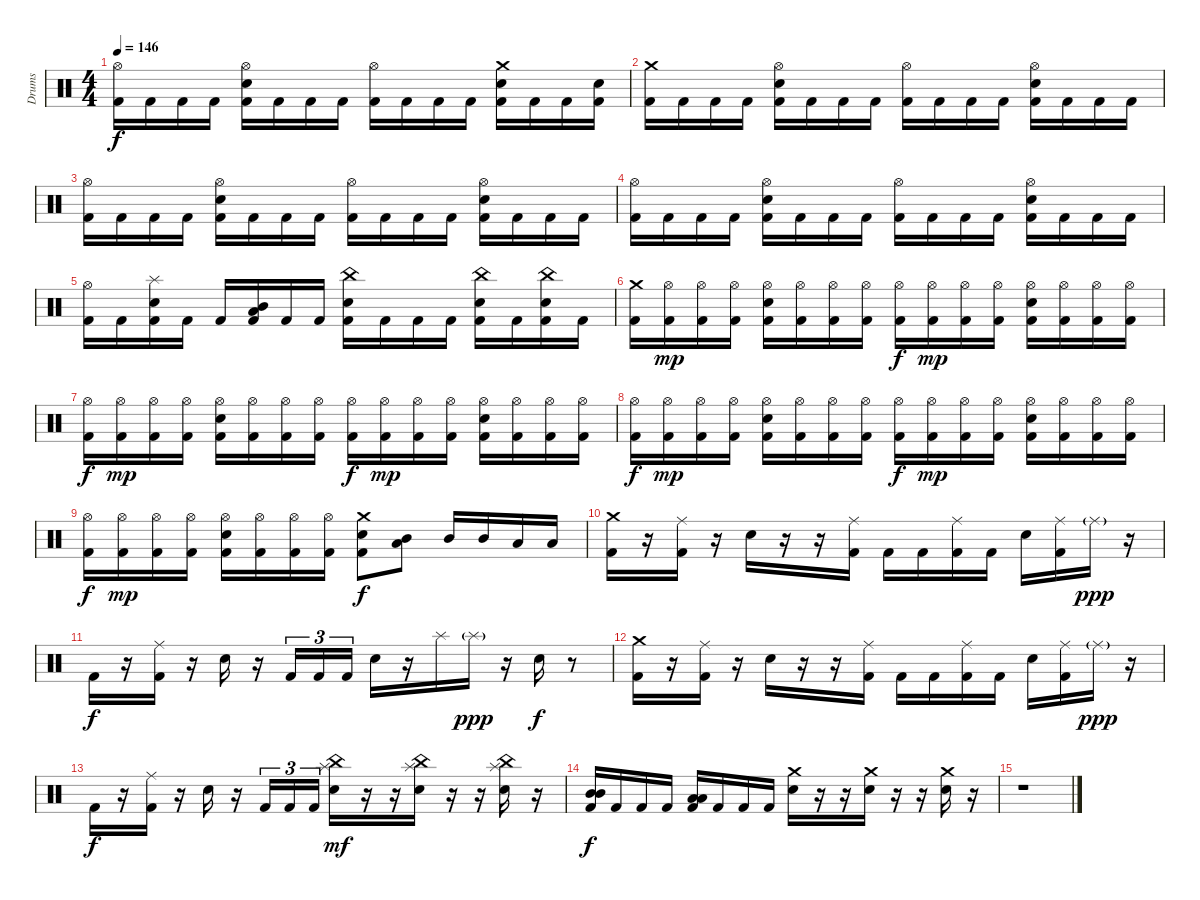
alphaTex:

\track ("Drums" "Drums") {instrument percussion}
\staff {score}
\articulation defaults
\ts (4 4)
\tempo 146
\clef neutral
\ks c
("Hi-Hat (open)" "Kick (hit) 2").16{dy f} "Kick (hit) 2".16 "Kick (hit) 2".16 "Kick (hit) 2".16 ("Hi-Hat (open)" "Electric Snare (hit)" "Kick (hit) 2").16 "Kick (hit) 2".16 "Kick (hit) 2".16 "Kick (hit) 2".16 ("Hi-Hat (open)" "Kick (hit) 2").16 "Kick (hit) 2".16 "Kick (hit) 2".16 "Kick (hit) 2".16 ("Crash medium (hit)" "Electric Snare (hit)" "Kick (hit) 2").16 "Kick (hit) 2".16 "Kick (hit) 2".16 ("Electric Snare (hit)" "Kick (hit) 2").16 |
("Crash medium (hit)" "Kick (hit) 2").16 "Kick (hit) 2".16 "Kick (hit) 2".16 "Kick (hit) 2".16 ("Hi-Hat (open)" "Electric Snare (hit)" "Kick (hit) 2").16 "Kick (hit) 2".16 "Kick (hit) 2".16 "Kick (hit) 2".16 ("Hi-Hat (open)" "Kick (hit) 2").16 "Kick (hit) 2".16 "Kick (hit) 2".16 "Kick (hit) 2".16 ("Hi-Hat (open)" "Electric Snare (hit)" "Kick (hit) 2").16 "Kick (hit) 2".16 "Kick (hit) 2".16 "Kick (hit) 2".16 |
("Hi-Hat (open)" "Kick (hit) 2").16 "Kick (hit) 2".16 "Kick (hit) 2".16 "Kick (hit) 2".16 ("Hi-Hat (open)" "Electric Snare (hit)" "Kick (hit) 2").16 "Kick (hit) 2".16 "Kick (hit) 2".16 "Kick (hit) 2".16 ("Hi-Hat (open)" "Kick (hit) 2").16 "Kick (hit) 2".16 "Kick (hit) 2".16 "Kick (hit) 2".16 ("Hi-Hat (open)" "Electric Snare (hit)" "Kick (hit) 2").16 "Kick (hit) 2".16 "Kick (hit) 2".16 "Kick (hit) 2".16 |
("Hi-Hat (open)" "Kick (hit) 2").16 "Kick (hit) 2".16 "Kick (hit) 2".16 "Kick (hit) 2".16 ("Hi-Hat (open)" "Electric Snare (hit)" "Kick (hit) 2").16 "Kick (hit) 2".16 "Kick (hit) 2".16 "Kick (hit) 2".16 ("Hi-Hat (open)" "Kick (hit) 2").16 "Kick (hit) 2".16 "Kick (hit) 2".16 "Kick (hit) 2".16 ("Hi-Hat (open)" "Electric Snare (hit)" "Kick (hit) 2").16 "Kick (hit) 2".16 "Kick (hit) 2".16 "Kick (hit) 2".16 |
("Hi-Hat (open)" "Kick (hit) 2").16 "Kick (hit) 2".16 ("Splash (hit)" "Electric Snare (hit)" "Kick (hit) 2").16 "Kick (hit) 2".16 "Kick (hit) 2".16 ("Mid Tom (hit)" "Low Tom (hit)" "Kick (hit) 2").16 "Kick (hit) 2".16 "Kick (hit) 2".16 ("China (hit)" "Electric Snare (hit)" "Kick (hit) 2").16 "Kick (hit) 2".16 "Kick (hit) 2".16 "Kick (hit) 2".16 ("China (hit)" "Electric Snare (hit)" "Kick (hit) 2").16 "Kick (hit) 2".16 ("China (hit)" "Electric Snare (hit)" "Kick (hit) 2").16 "Kick (hit) 2".16 |
("Crash medium (hit)" "Kick (hit) 2").16 ("Hi-Hat (open)" "Kick (hit) 2").16{dy mp} ("Hi-Hat (open)" "Kick (hit) 2").16 ("Hi-Hat (open)" "Kick (hit) 2").16 ("Hi-Hat (open)" "Electric Snare (hit)" "Kick (hit) 2").16 ("Hi-Hat (open)" "Kick (hit) 2").16 ("Hi-Hat (open)" "Kick (hit) 2").16 ("Hi-Hat (open)" "Kick (hit) 2").16 ("Hi-Hat (open)" "Kick (hit) 2").16{dy f} ("Hi-Hat (open)" "Kick (hit) 2").16{dy mp} ("Hi-Hat (open)" "Kick (hit) 2").16 ("Hi-Hat (open)" "Kick (hit) 2").16 ("Hi-Hat (open)" "Electric Snare (hit)" "Kick (hit) 2").16 ("Hi-Hat (open)" "Kick (hit) 2").16 ("Hi-Hat (open)" "Kick (hit) 2").16 ("Hi-Hat (open)" "Kick (hit) 2").16 |
("Hi-Hat (open)" "Kick (hit) 2").16{dy f} ("Hi-Hat (open)" "Kick (hit) 2").16{dy mp} ("Hi-Hat (open)" "Kick (hit) 2").16 ("Hi-Hat (open)" "Kick (hit) 2").16 ("Hi-Hat (open)" "Electric Snare (hit)" "Kick (hit) 2").16 ("Hi-Hat (open)" "Kick (hit) 2").16 ("Hi-Hat (open)" "Kick (hit) 2").16 ("Hi-Hat (open)" "Kick (hit) 2").16 ("Hi-Hat (open)" "Kick (hit) 2").16{dy f} ("Hi-Hat (open)" "Kick (hit) 2").16{dy mp} ("Hi-Hat (open)" "Kick (hit) 2").16 ("Hi-Hat (open)" "Kick (hit) 2").16 ("Hi-Hat (open)" "Electric Snare (hit)" "Kick (hit) 2").16 ("Hi-Hat (open)" "Kick (hit) 2").16 ("Hi-Hat (open)" "Kick (hit) 2").16 ("Hi-Hat (open)" "Kick (hit) 2").16 |
("Hi-Hat (open)" "Kick (hit) 2").16{dy f} ("Hi-Hat (open)" "Kick (hit) 2").16{dy mp} ("Hi-Hat (open)" "Kick (hit) 2").16 ("Hi-Hat (open)" "Kick (hit) 2").16 ("Hi-Hat (open)" "Electric Snare (hit)" "Kick (hit) 2").16 ("Hi-Hat (open)" "Kick (hit) 2").16 ("Hi-Hat (open)" "Kick (hit) 2").16 ("Hi-Hat (open)" "Kick (hit) 2").16 ("Hi-Hat (open)" "Kick (hit) 2").16{dy f} ("Hi-Hat (open)" "Kick (hit) 2").16{dy mp} ("Hi-Hat (open)" "Kick (hit) 2").16 ("Hi-Hat (open)" "Kick (hit) 2").16 ("Hi-Hat (open)" "Electric Snare (hit)" "Kick (hit) 2").16 ("Hi-Hat (open)" "Kick (hit) 2").16 ("Hi-Hat (open)" "Kick (hit) 2").16 ("Hi-Hat (open)" "Kick (hit) 2").16 |
("Hi-Hat (open)" "Kick (hit) 2").16{dy f} ("Hi-Hat (open)" "Kick (hit) 2").16{dy mp} ("Hi-Hat (open)" "Kick (hit) 2").16 ("Hi-Hat (open)" "Kick (hit) 2").16 ("Hi-Hat (open)" "Electric Snare (hit)" "Kick (hit) 2").16 ("Hi-Hat (open)" "Kick (hit) 2").16 ("Hi-Hat (open)" "Kick (hit) 2").16 ("Hi-Hat (open)" "Kick (hit) 2").16 ("Crash medium (hit)" "Electric Snare (hit)" "Kick (hit) 2").8{dy f} ("Mid Tom (hit)" "Low Tom (hit)").8 "Mid Tom (hit)".16 "Mid Tom (hit)".16 "Low Tom (hit)".16 "Low Tom (hit)".16 |
("Crash medium (hit)" "Kick (hit) 2").16 r.16 ("Ride (middle)" "Kick (hit) 2").16 r.16 "Electric Snare (hit)".16 r.16 r.16 ("Ride (middle)" "Kick (hit) 2").16 "Kick (hit) 2".16 "Kick (hit) 2".16 ("Ride (middle)" "Kick (hit) 2").16 "Kick (hit) 2".16 "Electric Snare (hit)".16 ("Ride (middle)" "Kick (hit) 2").16 "Ride (middle)"{g}.16{dy ppp} r.16 |
"Kick (hit) 2".16{dy f} r.16 ("Ride (middle)" "Kick (hit) 2").16 r.16 "Electric Snare (hit)".16 r.16 "Kick (hit) 2".16{tu (3 2)} "Kick (hit) 2".16{tu (3 2)} "Kick (hit) 2".16{tu (3 2)} "Electric Snare (hit)".16 r.16 "Splash (hit)".16 "Splash (hit)"{g}.16{dy ppp} r.16 "Electric Snare (hit)".16{dy f} r.8 |
("Crash medium (hit)" "Kick (hit) 2").16 r.16 ("Ride (middle)" "Kick (hit) 2").16 r.16 "Electric Snare (hit)".16 r.16 r.16 ("Ride (middle)" "Kick (hit) 2").16 "Kick (hit) 2".16 "Kick (hit) 2".16 ("Ride (middle)" "Kick (hit) 2").16 "Kick (hit) 2".16 "Electric Snare (hit)".16 ("Ride (middle)" "Kick (hit) 2").16 "Ride (middle)"{g}.16{dy ppp} r.16 |
"Kick (hit) 2".16{dy f} r.16 ("Ride (middle)" "Kick (hit) 2").16 r.16 "Electric Snare (hit)".16 r.16 "Kick (hit) 2".16{tu (3 2)} "Kick (hit) 2".16{tu (3 2)} "Kick (hit) 2".16{tu (3 2)} ("China (hit)" "Splash (hit)" "Electric Snare (hit)").16{dy mf} r.16 r.16 ("China (hit)" "Splash (hit)" "Electric Snare (hit)").16 r.16 r.16 ("China (hit)" "Splash (hit)" "Electric Snare (hit)").16 r.16 |
("Mid Tom (hit)" "Mid Tom (hit)" "Kick (hit) 2").16{dy f} "Kick (hit) 2".16 "Kick (hit) 2".16 "Kick (hit) 2".16 ("Low Tom (hit)" "Low Tom (hit)" "Kick (hit) 2").16 "Kick (hit) 2".16 "Kick (hit) 2".16 "Kick (hit) 2".16 ("Crash medium (hit)" "Electric Snare (hit)").16 r.16 r.16 ("Crash medium (hit)" "Electric Snare (hit)").16 r.16 r.16 ("Crash medium (hit)" "Electric Snare (hit)").16 r.16 |
r.1
